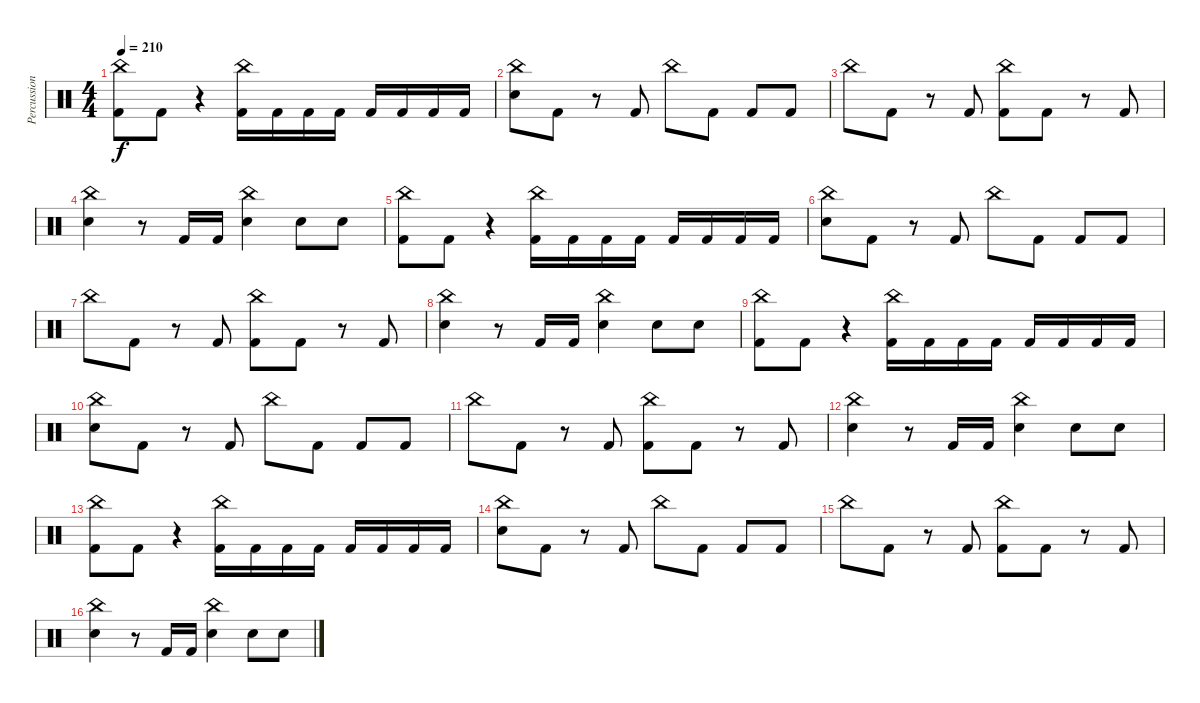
\track ("Percussion" "Percussion") {instrument percussion}
\staff {score}
\articulation defaults
\ts (4 4)
\tempo 210
\clef neutral
\ks c
("China (hit)" "Kick (hit) 2").8{dy f} "Kick (hit) 2".8 r.4 ("China (hit)" "Kick (hit) 2").16 "Kick (hit) 2".16 "Kick (hit) 2".16 "Kick (hit) 2".16 "Kick (hit) 2".16 "Kick (hit) 2".16 "Kick (hit) 2".16 "Kick (hit) 2".16 |
("China (hit)" "Electric Snare (hit)").8 "Kick (hit) 2".8 r.8 "Kick (hit) 2".8 "China (hit)".8 "Kick (hit) 2".8 "Kick (hit) 2".8 "Kick (hit) 2".8 |
"China (hit)".8 "Kick (hit) 2".8 r.8 "Kick (hit) 2".8 ("China (hit)" "Kick (hit) 2").8 "Kick (hit) 2".8 r.8 "Kick (hit) 2".8 |
("China (hit)" "Electric Snare (hit)").4 r.8 "Kick (hit) 2".16 "Kick (hit) 2".16 ("China (hit)" "Electric Snare (hit)").4 "Electric Snare (hit)".8 "Electric Snare (hit)".8 |
("China (hit)" "Kick (hit) 2").8 "Kick (hit) 2".8 r.4 ("China (hit)" "Kick (hit) 2").16 "Kick (hit) 2".16 "Kick (hit) 2".16 "Kick (hit) 2".16 "Kick (hit) 2".16 "Kick (hit) 2".16 "Kick (hit) 2".16 "Kick (hit) 2".16 |
("China (hit)" "Electric Snare (hit)").8 "Kick (hit) 2".8 r.8 "Kick (hit) 2".8 "China (hit)".8 "Kick (hit) 2".8 "Kick (hit) 2".8 "Kick (hit) 2".8 |
"China (hit)".8 "Kick (hit) 2".8 r.8 "Kick (hit) 2".8 ("China (hit)" "Kick (hit) 2").8 "Kick (hit) 2".8 r.8 "Kick (hit) 2".8 |
("China (hit)" "Electric Snare (hit)").4 r.8 "Kick (hit) 2".16 "Kick (hit) 2".16 ("China (hit)" "Electric Snare (hit)").4 "Electric Snare (hit)".8 "Electric Snare (hit)".8 |
("China (hit)" "Kick (hit) 2").8 "Kick (hit) 2".8 r.4 ("China (hit)" "Kick (hit) 2").16 "Kick (hit) 2".16 "Kick (hit) 2".16 "Kick (hit) 2".16 "Kick (hit) 2".16 "Kick (hit) 2".16 "Kick (hit) 2".16 "Kick (hit) 2".16 |
("China (hit)" "Electric Snare (hit)").8 "Kick (hit) 2".8 r.8 "Kick (hit) 2".8 "China (hit)".8 "Kick (hit) 2".8 "Kick (hit) 2".8 "Kick (hit) 2".8 |
"China (hit)".8 "Kick (hit) 2".8 r.8 "Kick (hit) 2".8 ("China (hit)" "Kick (hit) 2").8 "Kick (hit) 2".8 r.8 "Kick (hit) 2".8 |
("China (hit)" "Electric Snare (hit)").4 r.8 "Kick (hit) 2".16 "Kick (hit) 2".16 ("China (hit)" "Electric Snare (hit)").4 "Electric Snare (hit)".8 "Electric Snare (hit)".8 |
("China (hit)" "Kick (hit) 2").8 "Kick (hit) 2".8 r.4 ("China (hit)" "Kick (hit) 2").16 "Kick (hit) 2".16 "Kick (hit) 2".16 "Kick (hit) 2".16 "Kick (hit) 2".16 "Kick (hit) 2".16 "Kick (hit) 2".16 "Kick (hit) 2".16 |
("China (hit)" "Electric Snare (hit)").8 "Kick (hit) 2".8 r.8 "Kick (hit) 2".8 "China (hit)".8 "Kick (hit) 2".8 "Kick (hit) 2".8 "Kick (hit) 2".8 |
"China (hit)".8 "Kick (hit) 2".8 r.8 "Kick (hit) 2".8 ("China (hit)" "Kick (hit) 2").8 "Kick (hit) 2".8 r.8 "Kick (hit) 2".8 |
("China (hit)" "Electric Snare (hit)").4 r.8 "Kick (hit) 2".16 "Kick (hit) 2".16 ("China (hit)" "Electric Snare (hit)").4 "Electric Snare (hit)".8 "Electric Snare (hit)".8
